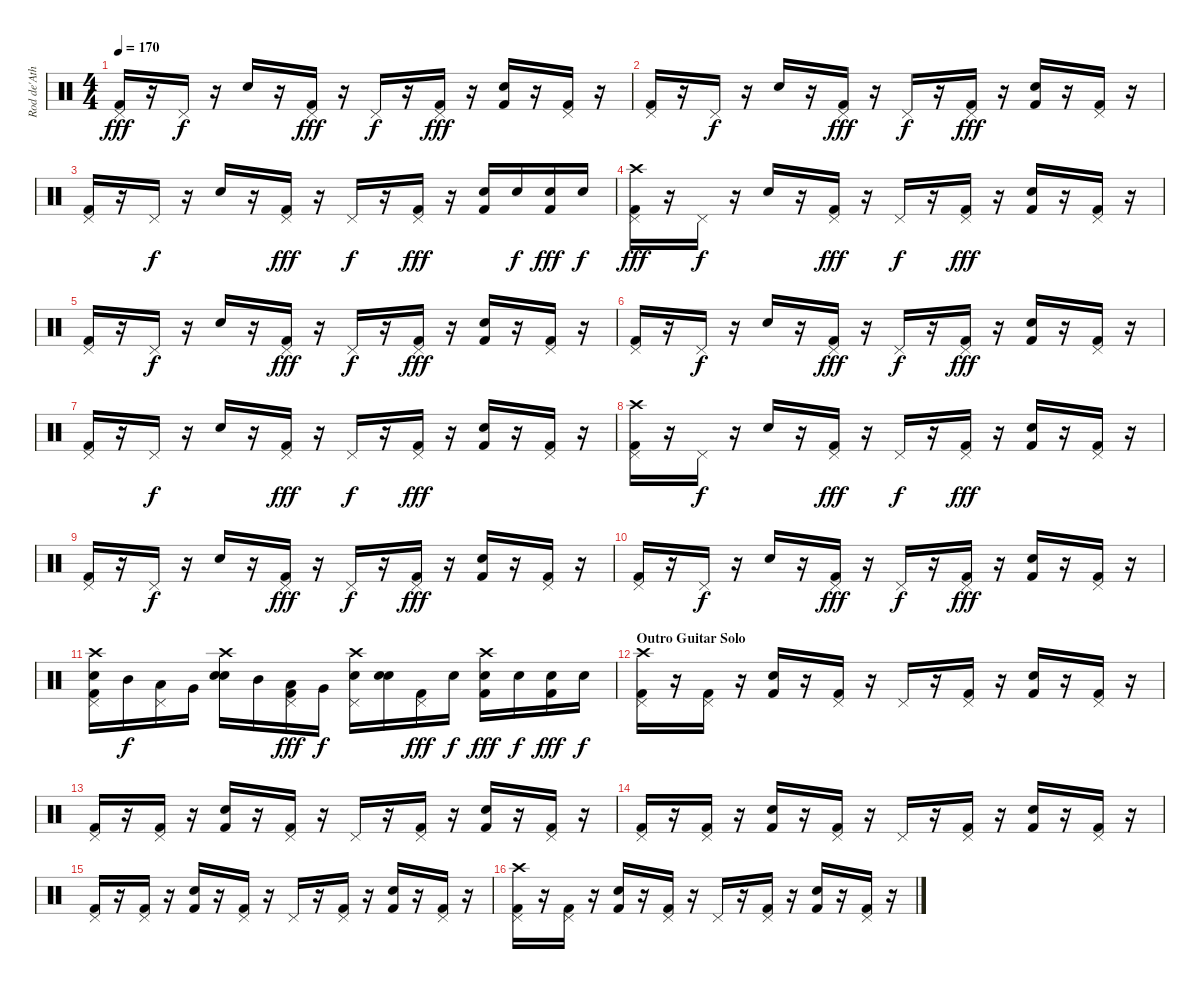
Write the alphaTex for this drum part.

\track ("Rod de'Ath" "Rod de'Ath") {instrument percussion}
\staff {score}
\articulation defaults
\ts (4 4)
\tempo 170
\clef neutral
\ks c
("Pedal Hi-Hat (hit)" "Kick (hit) 2").16{dy fff} r.16 "Pedal Hi-Hat (hit)".16{dy f} r.16 "Snare (hit) 2".16 r.16 ("Pedal Hi-Hat (hit)" "Kick (hit) 2").16{dy fff} r.16 "Pedal Hi-Hat (hit)".16{dy f} r.16 ("Pedal Hi-Hat (hit)" "Kick (hit) 2").16{dy fff} r.16 ("Electric Snare (hit)" "Kick (hit) 2").16 r.16 ("Pedal Hi-Hat (hit)" "Kick (hit) 2").16 r.16 |
("Pedal Hi-Hat (hit)" "Kick (hit) 2").16 r.16 "Pedal Hi-Hat (hit)".16{dy f} r.16 "Snare (hit) 2".16 r.16 ("Pedal Hi-Hat (hit)" "Kick (hit) 2").16{dy fff} r.16 "Pedal Hi-Hat (hit)".16{dy f} r.16 ("Pedal Hi-Hat (hit)" "Kick (hit) 2").16{dy fff} r.16 ("Electric Snare (hit)" "Kick (hit) 2").16 r.16 ("Pedal Hi-Hat (hit)" "Kick (hit) 2").16 r.16 |
("Pedal Hi-Hat (hit)" "Kick (hit) 2").16 r.16 "Pedal Hi-Hat (hit)".16{dy f} r.16 "Snare (hit) 2".16 r.16 ("Pedal Hi-Hat (hit)" "Kick (hit) 2").16{dy fff} r.16 "Pedal Hi-Hat (hit)".16{dy f} r.16 ("Pedal Hi-Hat (hit)" "Kick (hit) 2").16{dy fff} r.16 ("Electric Snare (hit)" "Kick (hit) 2").16 "Electric Snare (hit)".16{dy f} ("Electric Snare (hit)" "Kick (hit) 2").16{dy fff} "Electric Snare (hit)".16{dy f} |
("Crash high (hit)" "Pedal Hi-Hat (hit)" "Kick (hit) 2").16{dy fff} r.16 "Pedal Hi-Hat (hit)".16{dy f} r.16 "Snare (hit) 2".16 r.16 ("Pedal Hi-Hat (hit)" "Kick (hit) 2").16{dy fff} r.16 "Pedal Hi-Hat (hit)".16{dy f} r.16 ("Pedal Hi-Hat (hit)" "Kick (hit) 2").16{dy fff} r.16 ("Electric Snare (hit)" "Kick (hit) 2").16 r.16 ("Pedal Hi-Hat (hit)" "Kick (hit) 2").16 r.16 |
("Pedal Hi-Hat (hit)" "Kick (hit) 2").16 r.16 "Pedal Hi-Hat (hit)".16{dy f} r.16 "Snare (hit) 2".16 r.16 ("Pedal Hi-Hat (hit)" "Kick (hit) 2").16{dy fff} r.16 "Pedal Hi-Hat (hit)".16{dy f} r.16 ("Pedal Hi-Hat (hit)" "Kick (hit) 2").16{dy fff} r.16 ("Electric Snare (hit)" "Kick (hit) 2").16 r.16 ("Pedal Hi-Hat (hit)" "Kick (hit) 2").16 r.16 |
("Pedal Hi-Hat (hit)" "Kick (hit) 2").16 r.16 "Pedal Hi-Hat (hit)".16{dy f} r.16 "Snare (hit) 2".16 r.16 ("Pedal Hi-Hat (hit)" "Kick (hit) 2").16{dy fff} r.16 "Pedal Hi-Hat (hit)".16{dy f} r.16 ("Pedal Hi-Hat (hit)" "Kick (hit) 2").16{dy fff} r.16 ("Electric Snare (hit)" "Kick (hit) 2").16 r.16 ("Pedal Hi-Hat (hit)" "Kick (hit) 2").16 r.16 |
("Pedal Hi-Hat (hit)" "Kick (hit) 2").16 r.16 "Pedal Hi-Hat (hit)".16{dy f} r.16 "Snare (hit) 2".16 r.16 ("Pedal Hi-Hat (hit)" "Kick (hit) 2").16{dy fff} r.16 "Pedal Hi-Hat (hit)".16{dy f} r.16 ("Pedal Hi-Hat (hit)" "Kick (hit) 2").16{dy fff} r.16 ("Electric Snare (hit)" "Kick (hit) 2").16 r.16 ("Pedal Hi-Hat (hit)" "Kick (hit) 2").16 r.16 |
("Crash high (hit)" "Pedal Hi-Hat (hit)" "Kick (hit) 2").16 r.16 "Pedal Hi-Hat (hit)".16{dy f} r.16 "Snare (hit) 2".16 r.16 ("Pedal Hi-Hat (hit)" "Kick (hit) 2").16{dy fff} r.16 "Pedal Hi-Hat (hit)".16{dy f} r.16 ("Pedal Hi-Hat (hit)" "Kick (hit) 2").16{dy fff} r.16 ("Electric Snare (hit)" "Kick (hit) 2").16 r.16 ("Pedal Hi-Hat (hit)" "Kick (hit) 2").16 r.16 |
("Pedal Hi-Hat (hit)" "Kick (hit) 2").16 r.16 "Pedal Hi-Hat (hit)".16{dy f} r.16 "Snare (hit) 2".16 r.16 ("Pedal Hi-Hat (hit)" "Kick (hit) 2").16{dy fff} r.16 "Pedal Hi-Hat (hit)".16{dy f} r.16 ("Pedal Hi-Hat (hit)" "Kick (hit) 2").16{dy fff} r.16 ("Electric Snare (hit)" "Kick (hit) 2").16 r.16 ("Pedal Hi-Hat (hit)" "Kick (hit) 2").16 r.16 |
("Pedal Hi-Hat (hit)" "Kick (hit) 2").16 r.16 "Pedal Hi-Hat (hit)".16{dy f} r.16 "Snare (hit) 2".16 r.16 ("Pedal Hi-Hat (hit)" "Kick (hit) 2").16{dy fff} r.16 "Pedal Hi-Hat (hit)".16{dy f} r.16 ("Pedal Hi-Hat (hit)" "Kick (hit) 2").16{dy fff} r.16 ("Electric Snare (hit)" "Kick (hit) 2").16 r.16 ("Pedal Hi-Hat (hit)" "Kick (hit) 2").16 r.16 |
("Crash high (hit)" "Pedal Hi-Hat (hit)" "Snare (hit) 2" "Kick (hit) 2").16 "Mid Tom (hit)".16{dy f} ("Pedal Hi-Hat (hit)" "Low Tom (hit)").16 "Very Low Tom (hit)".16 ("Crash high (hit)" "Snare (hit) 2" "Electric Snare (hit)").16 "Mid Tom (hit)".16 ("Pedal Hi-Hat (hit)" "Low Tom (hit)" "Kick (hit) 2").16{dy fff} "Very Low Tom (hit)".16{dy f} ("Crash high (hit)" "Pedal Hi-Hat (hit)" "Electric Snare (hit)").16 ("Electric Snare (hit)" "Electric Snare (hit)").16 ("Pedal Hi-Hat (hit)" "Kick (hit) 2").16{dy fff} "Electric Snare (hit)".16{dy f} ("Crash high (hit)" "Electric Snare (hit)" "Kick (hit) 2").16{dy fff} "Electric Snare (hit)".16{dy f} ("Electric Snare (hit)" "Kick (hit) 2").16{dy fff} "Electric Snare (hit)".16{dy f} |
\section ("" "Outro Guitar Solo")
("Crash high (hit)" "Pedal Hi-Hat (hit)" "Kick (hit) 2").16 r.16 ("Pedal Hi-Hat (hit)" "Kick (hit) 2").16 r.16 ("Electric Snare (hit)" "Kick (hit) 2").16 r.16 ("Pedal Hi-Hat (hit)" "Kick (hit) 2").16 r.16 "Pedal Hi-Hat (hit)".16 r.16 ("Pedal Hi-Hat (hit)" "Kick (hit) 2").16 r.16 ("Electric Snare (hit)" "Kick (hit) 2").16 r.16 ("Pedal Hi-Hat (hit)" "Kick (hit) 2").16 r.16 |
("Pedal Hi-Hat (hit)" "Kick (hit) 2").16 r.16 ("Pedal Hi-Hat (hit)" "Kick (hit) 2").16 r.16 ("Snare (hit) 2" "Kick (hit) 2").16 r.16 ("Pedal Hi-Hat (hit)" "Kick (hit) 2").16 r.16 "Pedal Hi-Hat (hit)".16 r.16 ("Pedal Hi-Hat (hit)" "Kick (hit) 2").16 r.16 ("Electric Snare (hit)" "Kick (hit) 2").16 r.16 ("Pedal Hi-Hat (hit)" "Kick (hit) 2").16 r.16 |
("Pedal Hi-Hat (hit)" "Kick (hit) 2").16 r.16 ("Pedal Hi-Hat (hit)" "Kick (hit) 2").16 r.16 ("Snare (hit) 2" "Kick (hit) 2").16 r.16 ("Pedal Hi-Hat (hit)" "Kick (hit) 2").16 r.16 "Pedal Hi-Hat (hit)".16 r.16 ("Pedal Hi-Hat (hit)" "Kick (hit) 2").16 r.16 ("Electric Snare (hit)" "Kick (hit) 2").16 r.16 ("Pedal Hi-Hat (hit)" "Kick (hit) 2").16 r.16 |
("Pedal Hi-Hat (hit)" "Kick (hit) 2").16 r.16 ("Pedal Hi-Hat (hit)" "Kick (hit) 2").16 r.16 ("Snare (hit) 2" "Kick (hit) 2").16 r.16 ("Pedal Hi-Hat (hit)" "Kick (hit) 2").16 r.16 "Pedal Hi-Hat (hit)".16 r.16 ("Pedal Hi-Hat (hit)" "Kick (hit) 2").16 r.16 ("Electric Snare (hit)" "Kick (hit) 2").16 r.16 ("Pedal Hi-Hat (hit)" "Kick (hit) 2").16 r.16 |
("Crash high (hit)" "Pedal Hi-Hat (hit)" "Kick (hit) 2").16 r.16 ("Pedal Hi-Hat (hit)" "Kick (hit) 2").16 r.16 ("Snare (hit) 2" "Kick (hit) 2").16 r.16 ("Pedal Hi-Hat (hit)" "Kick (hit) 2").16 r.16 "Pedal Hi-Hat (hit)".16 r.16 ("Pedal Hi-Hat (hit)" "Kick (hit) 2").16 r.16 ("Electric Snare (hit)" "Kick (hit) 2").16 r.16 ("Pedal Hi-Hat (hit)" "Kick (hit) 2").16 r.16
